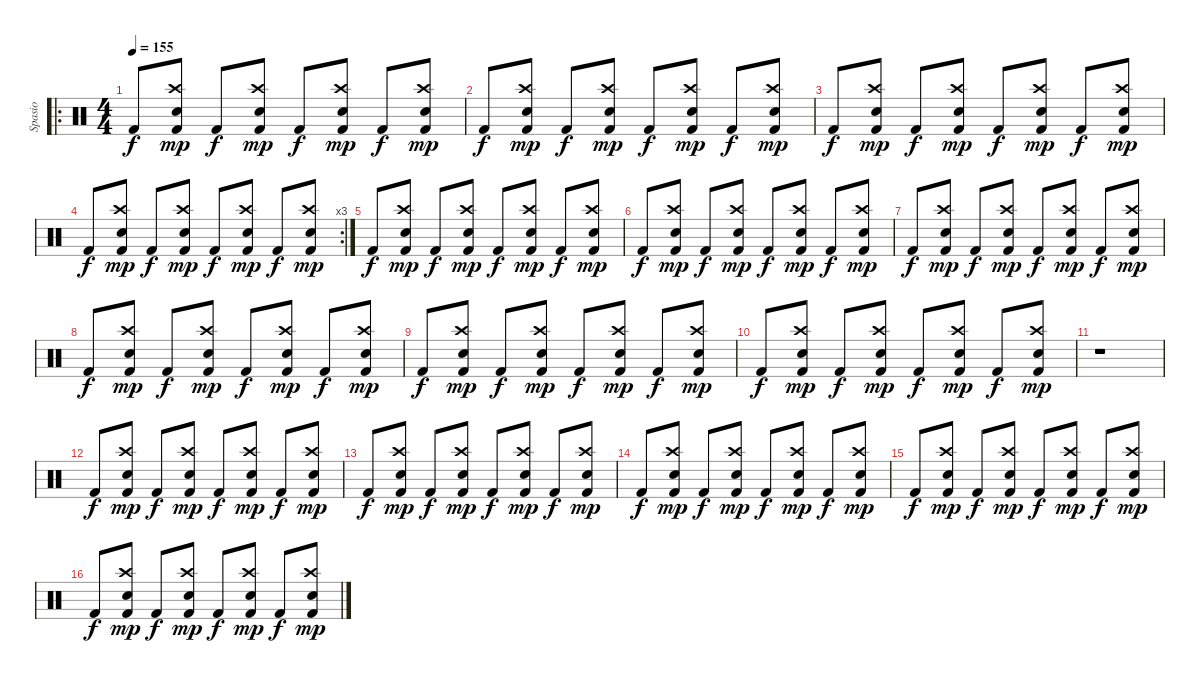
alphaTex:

\track ("Spasio" "Spasio") {instrument percussion}
\staff {score}
\articulation defaults
\ro
\ts (4 4)
\tempo 155
\clef neutral
\ks c "Kick (hit) 2".8{dy f}
("Crash high (hit)" "Electric Snare (hit)" "Kick (hit) 2").8{dy mp} "Kick (hit) 2".8{dy f} ("Crash high (hit)" "Electric Snare (hit)" "Kick (hit) 2").8{dy mp} "Kick (hit) 2".8{dy f} ("Crash high (hit)" "Electric Snare (hit)" "Kick (hit) 2").8{dy mp} "Kick (hit) 2".8{dy f} ("Crash high (hit)" "Electric Snare (hit)" "Kick (hit) 2").8{dy mp} |
"Kick (hit) 2".8{dy f} ("Crash high (hit)" "Electric Snare (hit)" "Kick (hit) 2").8{dy mp} "Kick (hit) 2".8{dy f} ("Crash high (hit)" "Electric Snare (hit)" "Kick (hit) 2").8{dy mp} "Kick (hit) 2".8{dy f} ("Crash high (hit)" "Electric Snare (hit)" "Kick (hit) 2").8{dy mp} "Kick (hit) 2".8{dy f} ("Crash high (hit)" "Electric Snare (hit)" "Kick (hit) 2").8{dy mp} |
"Kick (hit) 2".8{dy f} ("Crash high (hit)" "Electric Snare (hit)" "Kick (hit) 2").8{dy mp} "Kick (hit) 2".8{dy f} ("Crash high (hit)" "Electric Snare (hit)" "Kick (hit) 2").8{dy mp} "Kick (hit) 2".8{dy f} ("Crash high (hit)" "Electric Snare (hit)" "Kick (hit) 2").8{dy mp} "Kick (hit) 2".8{dy f} ("Crash high (hit)" "Electric Snare (hit)" "Kick (hit) 2").8{dy mp} |
\rc 3 "Kick (hit) 2".8{dy f}
("Crash high (hit)" "Electric Snare (hit)" "Kick (hit) 2").8{dy mp} "Kick (hit) 2".8{dy f} ("Crash high (hit)" "Electric Snare (hit)" "Kick (hit) 2").8{dy mp} "Kick (hit) 2".8{dy f} ("Crash high (hit)" "Electric Snare (hit)" "Kick (hit) 2").8{dy mp} "Kick (hit) 2".8{dy f} ("Crash high (hit)" "Electric Snare (hit)" "Kick (hit) 2").8{dy mp} |
"Kick (hit) 2".8{dy f} ("Crash high (hit)" "Electric Snare (hit)" "Kick (hit) 2").8{dy mp} "Kick (hit) 2".8{dy f} ("Crash high (hit)" "Electric Snare (hit)" "Kick (hit) 2").8{dy mp} "Kick (hit) 2".8{dy f} ("Crash high (hit)" "Electric Snare (hit)" "Kick (hit) 2").8{dy mp} "Kick (hit) 2".8{dy f} ("Crash high (hit)" "Electric Snare (hit)" "Kick (hit) 2").8{dy mp} |
"Kick (hit) 2".8{dy f} ("Crash high (hit)" "Electric Snare (hit)" "Kick (hit) 2").8{dy mp} "Kick (hit) 2".8{dy f} ("Crash high (hit)" "Electric Snare (hit)" "Kick (hit) 2").8{dy mp} "Kick (hit) 2".8{dy f} ("Crash high (hit)" "Electric Snare (hit)" "Kick (hit) 2").8{dy mp} "Kick (hit) 2".8{dy f} ("Crash high (hit)" "Electric Snare (hit)" "Kick (hit) 2").8{dy mp} |
"Kick (hit) 2".8{dy f} ("Crash high (hit)" "Electric Snare (hit)" "Kick (hit) 2").8{dy mp} "Kick (hit) 2".8{dy f} ("Crash high (hit)" "Electric Snare (hit)" "Kick (hit) 2").8{dy mp} "Kick (hit) 2".8{dy f} ("Crash high (hit)" "Electric Snare (hit)" "Kick (hit) 2").8{dy mp} "Kick (hit) 2".8{dy f} ("Crash high (hit)" "Electric Snare (hit)" "Kick (hit) 2").8{dy mp} |
"Kick (hit) 2".8{dy f} ("Crash high (hit)" "Electric Snare (hit)" "Kick (hit) 2").8{dy mp} "Kick (hit) 2".8{dy f} ("Crash high (hit)" "Electric Snare (hit)" "Kick (hit) 2").8{dy mp} "Kick (hit) 2".8{dy f} ("Crash high (hit)" "Electric Snare (hit)" "Kick (hit) 2").8{dy mp} "Kick (hit) 2".8{dy f} ("Crash high (hit)" "Electric Snare (hit)" "Kick (hit) 2").8{dy mp} |
"Kick (hit) 2".8{dy f} ("Crash high (hit)" "Electric Snare (hit)" "Kick (hit) 2").8{dy mp} "Kick (hit) 2".8{dy f} ("Crash high (hit)" "Electric Snare (hit)" "Kick (hit) 2").8{dy mp} "Kick (hit) 2".8{dy f} ("Crash high (hit)" "Electric Snare (hit)" "Kick (hit) 2").8{dy mp} "Kick (hit) 2".8{dy f} ("Crash high (hit)" "Electric Snare (hit)" "Kick (hit) 2").8{dy mp} |
"Kick (hit) 2".8{dy f} ("Crash high (hit)" "Electric Snare (hit)" "Kick (hit) 2").8{dy mp} "Kick (hit) 2".8{dy f} ("Crash high (hit)" "Electric Snare (hit)" "Kick (hit) 2").8{dy mp} "Kick (hit) 2".8{dy f} ("Crash high (hit)" "Electric Snare (hit)" "Kick (hit) 2").8{dy mp} "Kick (hit) 2".8{dy f} ("Crash high (hit)" "Electric Snare (hit)" "Kick (hit) 2").8{dy mp} |
r.1 |
"Kick (hit) 2".8{dy f} ("Crash high (hit)" "Electric Snare (hit)" "Kick (hit) 2").8{dy mp} "Kick (hit) 2".8{dy f} ("Crash high (hit)" "Electric Snare (hit)" "Kick (hit) 2").8{dy mp} "Kick (hit) 2".8{dy f} ("Crash high (hit)" "Electric Snare (hit)" "Kick (hit) 2").8{dy mp} "Kick (hit) 2".8{dy f} ("Crash high (hit)" "Electric Snare (hit)" "Kick (hit) 2").8{dy mp} |
"Kick (hit) 2".8{dy f} ("Crash high (hit)" "Electric Snare (hit)" "Kick (hit) 2").8{dy mp} "Kick (hit) 2".8{dy f} ("Crash high (hit)" "Electric Snare (hit)" "Kick (hit) 2").8{dy mp} "Kick (hit) 2".8{dy f} ("Crash high (hit)" "Electric Snare (hit)" "Kick (hit) 2").8{dy mp} "Kick (hit) 2".8{dy f} ("Crash high (hit)" "Electric Snare (hit)" "Kick (hit) 2").8{dy mp} |
"Kick (hit) 2".8{dy f} ("Crash high (hit)" "Electric Snare (hit)" "Kick (hit) 2").8{dy mp} "Kick (hit) 2".8{dy f} ("Crash high (hit)" "Electric Snare (hit)" "Kick (hit) 2").8{dy mp} "Kick (hit) 2".8{dy f} ("Crash high (hit)" "Electric Snare (hit)" "Kick (hit) 2").8{dy mp} "Kick (hit) 2".8{dy f} ("Crash high (hit)" "Electric Snare (hit)" "Kick (hit) 2").8{dy mp} |
"Kick (hit) 2".8{dy f} ("Crash high (hit)" "Electric Snare (hit)" "Kick (hit) 2").8{dy mp} "Kick (hit) 2".8{dy f} ("Crash high (hit)" "Electric Snare (hit)" "Kick (hit) 2").8{dy mp} "Kick (hit) 2".8{dy f} ("Crash high (hit)" "Electric Snare (hit)" "Kick (hit) 2").8{dy mp} "Kick (hit) 2".8{dy f} ("Crash high (hit)" "Electric Snare (hit)" "Kick (hit) 2").8{dy mp} |
"Kick (hit) 2".8{dy f} ("Crash high (hit)" "Electric Snare (hit)" "Kick (hit) 2").8{dy mp} "Kick (hit) 2".8{dy f} ("Crash high (hit)" "Electric Snare (hit)" "Kick (hit) 2").8{dy mp} "Kick (hit) 2".8{dy f} ("Crash high (hit)" "Electric Snare (hit)" "Kick (hit) 2").8{dy mp} "Kick (hit) 2".8{dy f} ("Crash high (hit)" "Electric Snare (hit)" "Kick (hit) 2").8{dy mp}
